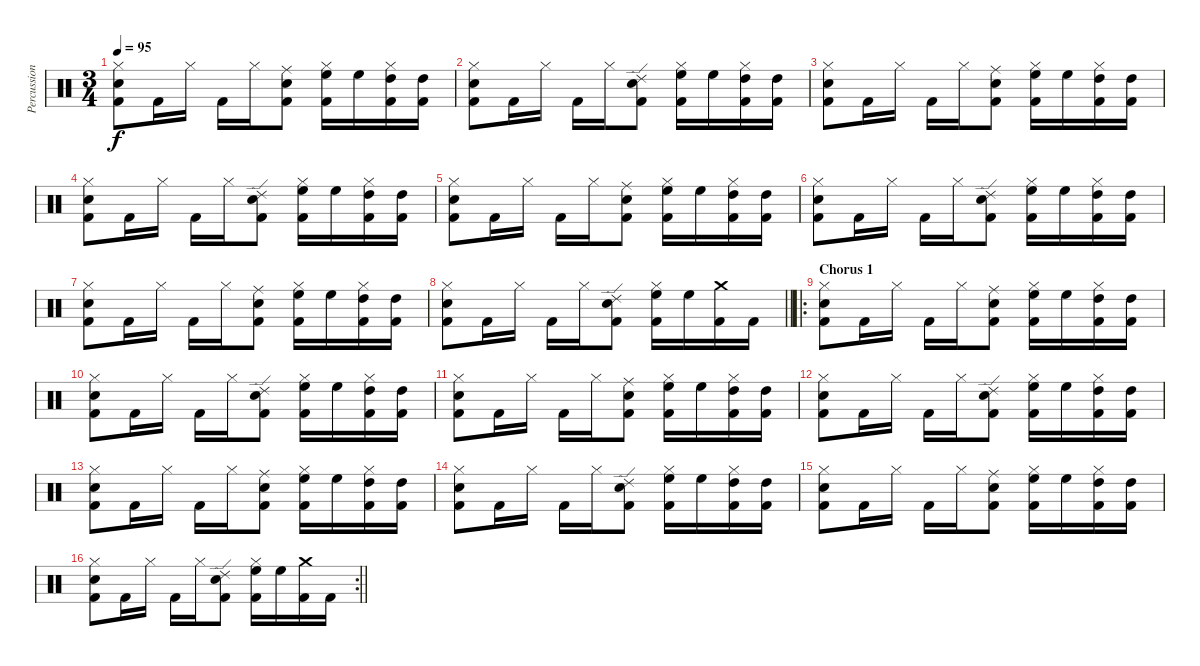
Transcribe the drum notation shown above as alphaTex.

\track ("Percussion" "Percussion") {instrument percussion}
\staff {score}
\articulation defaults
\ts (3 4)
\tempo 95
\clef neutral
\ks c
("Hi-Hat (closed)" "Snare (hit) 2" "Kick (hit) 2").8{dy f} "Kick (hit) 2".16 "Hi-Hat (closed)".16 "Kick (hit) 2".16 "Hi-Hat (closed)".16 ("Ride (middle)" "Snare (hit) 2" "Kick (hit) 2").8 ("Hi-Hat (closed)" "High Floor Tom (hit)" "Kick (hit) 2").16 "High Floor Tom (hit)".16 ("Hi-Hat (closed)" "High Tom (hit)" "Kick (hit) 2").16 ("High Tom (hit)" "Kick (hit) 2").16 |
("Hi-Hat (closed)" "Snare (hit) 2" "Kick (hit) 2").8 "Kick (hit) 2".16 "Hi-Hat (closed)".16 "Kick (hit) 2".16 "Hi-Hat (closed)".16 ("Ride (edge) 2" "Snare (hit) 2" "Kick (hit) 2").8 ("Hi-Hat (closed)" "High Floor Tom (hit)" "Kick (hit) 2").16 "High Floor Tom (hit)".16 ("Hi-Hat (closed)" "High Tom (hit)" "Kick (hit) 2").16 ("High Tom (hit)" "Kick (hit) 2").16 |
("Hi-Hat (closed)" "Snare (hit) 2" "Kick (hit) 2").8 "Kick (hit) 2".16 "Hi-Hat (closed)".16 "Kick (hit) 2".16 "Hi-Hat (closed)".16 ("Ride (middle)" "Snare (hit) 2" "Kick (hit) 2").8 ("Hi-Hat (closed)" "High Floor Tom (hit)" "Kick (hit) 2").16 "High Floor Tom (hit)".16 ("Hi-Hat (closed)" "High Tom (hit)" "Kick (hit) 2").16 ("High Tom (hit)" "Kick (hit) 2").16 |
("Hi-Hat (closed)" "Snare (hit) 2" "Kick (hit) 2").8 "Kick (hit) 2".16 "Hi-Hat (closed)".16 "Kick (hit) 2".16 "Hi-Hat (closed)".16 ("Ride (edge) 2" "Snare (hit) 2" "Kick (hit) 2").8 ("Hi-Hat (closed)" "High Floor Tom (hit)" "Kick (hit) 2").16 "High Floor Tom (hit)".16 ("Hi-Hat (closed)" "High Tom (hit)" "Kick (hit) 2").16 ("High Tom (hit)" "Kick (hit) 2").16 |
("Hi-Hat (closed)" "Snare (hit) 2" "Kick (hit) 2").8 "Kick (hit) 2".16 "Hi-Hat (closed)".16 "Kick (hit) 2".16 "Hi-Hat (closed)".16 ("Ride (middle)" "Snare (hit) 2" "Kick (hit) 2").8 ("Hi-Hat (closed)" "High Floor Tom (hit)" "Kick (hit) 2").16 "High Floor Tom (hit)".16 ("Hi-Hat (closed)" "High Tom (hit)" "Kick (hit) 2").16 ("High Tom (hit)" "Kick (hit) 2").16 |
("Hi-Hat (closed)" "Snare (hit) 2" "Kick (hit) 2").8 "Kick (hit) 2".16 "Hi-Hat (closed)".16 "Kick (hit) 2".16 "Hi-Hat (closed)".16 ("Ride (edge) 2" "Snare (hit) 2" "Kick (hit) 2").8 ("Hi-Hat (closed)" "High Floor Tom (hit)" "Kick (hit) 2").16 "High Floor Tom (hit)".16 ("Hi-Hat (closed)" "High Tom (hit)" "Kick (hit) 2").16 ("High Tom (hit)" "Kick (hit) 2").16 |
("Hi-Hat (closed)" "Snare (hit) 2" "Kick (hit) 2").8 "Kick (hit) 2".16 "Hi-Hat (closed)".16 "Kick (hit) 2".16 "Hi-Hat (closed)".16 ("Ride (middle)" "Snare (hit) 2" "Kick (hit) 2").8 ("Hi-Hat (closed)" "High Floor Tom (hit)" "Kick (hit) 2").16 "High Floor Tom (hit)".16 ("Hi-Hat (closed)" "High Tom (hit)" "Kick (hit) 2").16 ("High Tom (hit)" "Kick (hit) 2").16 |
\barLineRight lightlight
("Hi-Hat (closed)" "Snare (hit) 2" "Kick (hit) 2").8 "Kick (hit) 2".16 "Hi-Hat (closed)".16 "Kick (hit) 2".16 "Hi-Hat (closed)".16 ("Ride (edge) 2" "Snare (hit) 2" "Kick (hit) 2").8 ("Hi-Hat (closed)" "High Floor Tom (hit)" "Kick (hit) 2").16 "High Floor Tom (hit)".16 ("Crash medium (hit)" "Kick (hit) 2").16 "Kick (hit) 2".16 |
\ro
\section ("" "Chorus 1")
("Hi-Hat (closed)" "Snare (hit) 2" "Kick (hit) 2").8 "Kick (hit) 2".16 "Hi-Hat (closed)".16 "Kick (hit) 2".16 "Hi-Hat (closed)".16 ("Ride (middle)" "Snare (hit) 2" "Kick (hit) 2").8 ("Hi-Hat (closed)" "High Floor Tom (hit)" "Kick (hit) 2").16 "High Floor Tom (hit)".16 ("Hi-Hat (closed)" "High Tom (hit)" "Kick (hit) 2").16 ("High Tom (hit)" "Kick (hit) 2").16 |
("Hi-Hat (closed)" "Snare (hit) 2" "Kick (hit) 2").8 "Kick (hit) 2".16 "Hi-Hat (closed)".16 "Kick (hit) 2".16 "Hi-Hat (closed)".16 ("Ride (edge) 2" "Snare (hit) 2" "Kick (hit) 2").8 ("Hi-Hat (closed)" "High Floor Tom (hit)" "Kick (hit) 2").16 "High Floor Tom (hit)".16 ("Hi-Hat (closed)" "High Tom (hit)" "Kick (hit) 2").16 ("High Tom (hit)" "Kick (hit) 2").16 |
("Hi-Hat (closed)" "Snare (hit) 2" "Kick (hit) 2").8 "Kick (hit) 2".16 "Hi-Hat (closed)".16 "Kick (hit) 2".16 "Hi-Hat (closed)".16 ("Ride (middle)" "Snare (hit) 2" "Kick (hit) 2").8 ("Hi-Hat (closed)" "High Floor Tom (hit)" "Kick (hit) 2").16 "High Floor Tom (hit)".16 ("Hi-Hat (closed)" "High Tom (hit)" "Kick (hit) 2").16 ("High Tom (hit)" "Kick (hit) 2").16 |
("Hi-Hat (closed)" "Snare (hit) 2" "Kick (hit) 2").8 "Kick (hit) 2".16 "Hi-Hat (closed)".16 "Kick (hit) 2".16 "Hi-Hat (closed)".16 ("Ride (edge) 2" "Snare (hit) 2" "Kick (hit) 2").8 ("Hi-Hat (closed)" "High Floor Tom (hit)" "Kick (hit) 2").16 "High Floor Tom (hit)".16 ("Hi-Hat (closed)" "High Tom (hit)" "Kick (hit) 2").16 ("High Tom (hit)" "Kick (hit) 2").16 |
("Hi-Hat (closed)" "Snare (hit) 2" "Kick (hit) 2").8 "Kick (hit) 2".16 "Hi-Hat (closed)".16 "Kick (hit) 2".16 "Hi-Hat (closed)".16 ("Ride (middle)" "Snare (hit) 2" "Kick (hit) 2").8 ("Hi-Hat (closed)" "High Floor Tom (hit)" "Kick (hit) 2").16 "High Floor Tom (hit)".16 ("Hi-Hat (closed)" "High Tom (hit)" "Kick (hit) 2").16 ("High Tom (hit)" "Kick (hit) 2").16 |
("Hi-Hat (closed)" "Snare (hit) 2" "Kick (hit) 2").8 "Kick (hit) 2".16 "Hi-Hat (closed)".16 "Kick (hit) 2".16 "Hi-Hat (closed)".16 ("Ride (edge) 2" "Snare (hit) 2" "Kick (hit) 2").8 ("Hi-Hat (closed)" "High Floor Tom (hit)" "Kick (hit) 2").16 "High Floor Tom (hit)".16 ("Hi-Hat (closed)" "High Tom (hit)" "Kick (hit) 2").16 ("High Tom (hit)" "Kick (hit) 2").16 |
("Hi-Hat (closed)" "Snare (hit) 2" "Kick (hit) 2").8 "Kick (hit) 2".16 "Hi-Hat (closed)".16 "Kick (hit) 2".16 "Hi-Hat (closed)".16 ("Ride (middle)" "Snare (hit) 2" "Kick (hit) 2").8 ("Hi-Hat (closed)" "High Floor Tom (hit)" "Kick (hit) 2").16 "High Floor Tom (hit)".16 ("Hi-Hat (closed)" "High Tom (hit)" "Kick (hit) 2").16 ("High Tom (hit)" "Kick (hit) 2").16 |
\rc 2
\barLineRight lightlight
("Hi-Hat (closed)" "Snare (hit) 2" "Kick (hit) 2").8 "Kick (hit) 2".16 "Hi-Hat (closed)".16 "Kick (hit) 2".16 "Hi-Hat (closed)".16 ("Ride (edge) 2" "Snare (hit) 2" "Kick (hit) 2").8 ("Hi-Hat (closed)" "High Floor Tom (hit)" "Kick (hit) 2").16 "High Floor Tom (hit)".16 ("Crash medium (hit)" "Kick (hit) 2").16 "Kick (hit) 2".16
